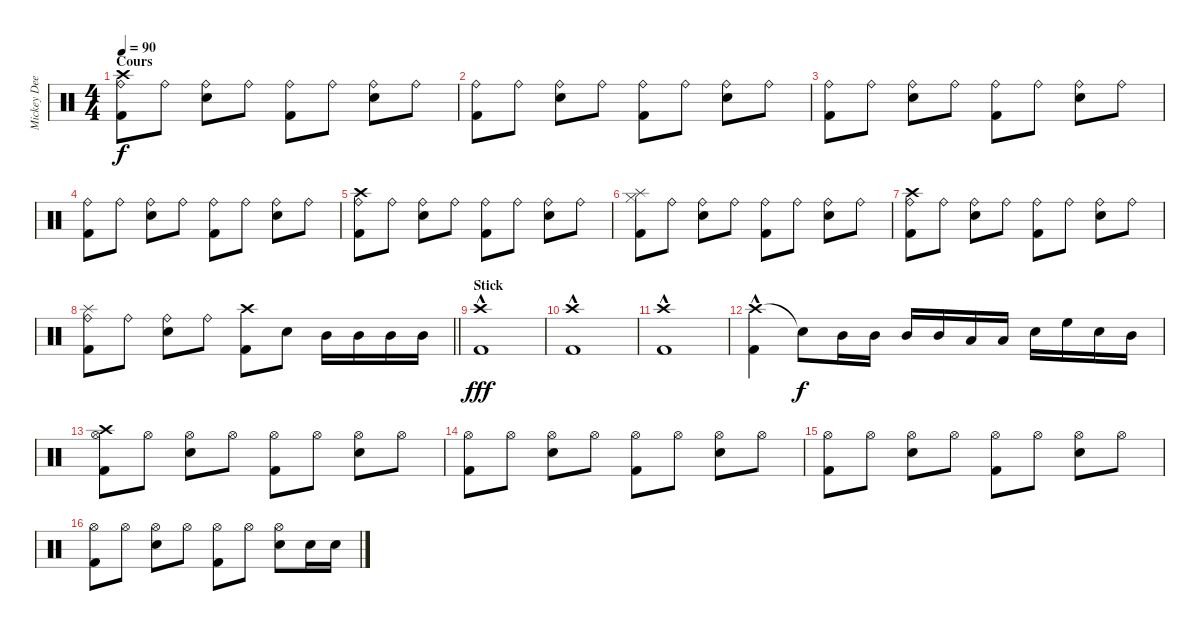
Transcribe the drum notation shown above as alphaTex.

\track ("Mickey Dee" "Mickey Dee") {instrument percussion}
\staff {score}
\articulation defaults
\ts (4 4)
\section ("" "Cours")
\tempo 90
\clef neutral
\ks c
("Crash high (hit)" "Ride (bell)" "Kick (hit) 2").8{dy f} "Ride (bell)".8 ("Ride (bell)" "Snare (hit) 2").8 "Ride (bell)".8 ("Ride (bell)" "Kick (hit) 2").8 "Ride (bell)".8 ("Ride (bell)" "Snare (hit) 2").8 "Ride (bell)".8 |
("Ride (bell)" "Kick (hit) 2").8 "Ride (bell)".8 ("Ride (bell)" "Snare (hit) 2").8 "Ride (bell)".8 ("Ride (bell)" "Kick (hit) 2").8 "Ride (bell)".8 ("Ride (bell)" "Snare (hit) 2").8 "Ride (bell)".8 |
("Ride (bell)" "Kick (hit) 2").8 "Ride (bell)".8 ("Ride (bell)" "Snare (hit) 2").8 "Ride (bell)".8 ("Ride (bell)" "Kick (hit) 2").8 "Ride (bell)".8 ("Ride (bell)" "Snare (hit) 2").8 "Ride (bell)".8 |
("Ride (bell)" "Kick (hit) 2").8 "Ride (bell)".8 ("Ride (bell)" "Snare (hit) 2").8 "Ride (bell)".8 ("Ride (bell)" "Kick (hit) 2").8 "Ride (bell)".8 ("Ride (bell)" "Snare (hit) 2").8 "Ride (bell)".8 |
("Crash high (hit)" "Ride (bell)" "Kick (hit) 2").8 "Ride (bell)".8 ("Ride (bell)" "Snare (hit) 2").8 "Ride (bell)".8 ("Ride (bell)" "Kick (hit) 2").8 "Ride (bell)".8 ("Ride (bell)" "Snare (hit) 2").8 "Ride (bell)".8 |
("Splash (hit)" "Hi-Hat (closed)" "Kick (hit) 2").8 "Ride (bell)".8 ("Ride (bell)" "Snare (hit) 2").8 "Ride (bell)".8 ("Ride (bell)" "Kick (hit) 2").8 "Ride (bell)".8 ("Ride (bell)" "Snare (hit) 2").8 "Ride (bell)".8 |
("Crash high (hit)" "Ride (bell)" "Kick (hit) 2").8 "Ride (bell)".8 ("Ride (bell)" "Snare (hit) 2").8 "Ride (bell)".8 ("Ride (bell)" "Kick (hit) 2").8 "Ride (bell)".8 ("Ride (bell)" "Snare (hit) 2").8 "Ride (bell)".8 |
\barLineRight lightlight
("Splash (hit)" "Ride (bell)" "Kick (hit) 2").8 "Ride (bell)".8 ("Ride (bell)" "Snare (hit) 2").8 "Ride (bell)".8 ("Crash high (hit)" "Kick (hit) 2").8 "Snare (hit) 2".8 "Mid Tom (hit)".16 "Mid Tom (hit)".16 "Mid Tom (hit)".16 "Mid Tom (hit)".16 |
\section ("" "Stick")
("Crash high (hit)"{hac} "Kick (hit) 2"{hac}).1{dy fff} |
("Crash high (hit)"{hac} "Kick (hit) 2"{hac}).1 |
("Crash high (hit)"{hac} "Kick (hit) 2"{hac}).1 |
("Crash high (hit)"{hac} "Kick (hit) 2"{hac}).4 "Snare (hit) 2"{t}.8{dy f} "Mid Tom (hit)".16 "Mid Tom (hit)".16 "Mid Tom (hit)".16 "Mid Tom (hit)".16 "Low Tom (hit)".16 "Low Tom (hit)".16 "Snare (hit) 2".16 "High Floor Tom (hit)".16 "Snare (hit) 2".16 "Mid Tom (hit)".16 |
("Crash high (hit)" "Hi-Hat (open)" "Kick (hit) 2").8 "Hi-Hat (open)".8 ("Hi-Hat (open)" "Snare (hit) 2").8 "Hi-Hat (open)".8 ("Hi-Hat (open)" "Kick (hit) 2").8 "Hi-Hat (open)".8 ("Hi-Hat (open)" "Snare (hit) 2").8 "Hi-Hat (open)".8 |
("Hi-Hat (open)" "Kick (hit) 2").8 "Hi-Hat (open)".8 ("Hi-Hat (open)" "Snare (hit) 2").8 "Hi-Hat (open)".8 ("Hi-Hat (open)" "Kick (hit) 2").8 "Hi-Hat (open)".8 ("Hi-Hat (open)" "Snare (hit) 2").8 "Hi-Hat (open)".8 |
("Hi-Hat (open)" "Kick (hit) 2").8 "Hi-Hat (open)".8 ("Hi-Hat (open)" "Snare (hit) 2").8 "Hi-Hat (open)".8 ("Hi-Hat (open)" "Kick (hit) 2").8 "Hi-Hat (open)".8 ("Hi-Hat (open)" "Snare (hit) 2").8 "Hi-Hat (open)".8 |
("Hi-Hat (open)" "Kick (hit) 2").8 "Hi-Hat (open)".8 ("Hi-Hat (open)" "Snare (hit) 2").8 "Hi-Hat (open)".8 ("Hi-Hat (open)" "Kick (hit) 2").8 "Hi-Hat (open)".8 ("Hi-Hat (open)" "Snare (hit) 2").8 "Snare (hit) 2".16 "Snare (hit) 2".16
